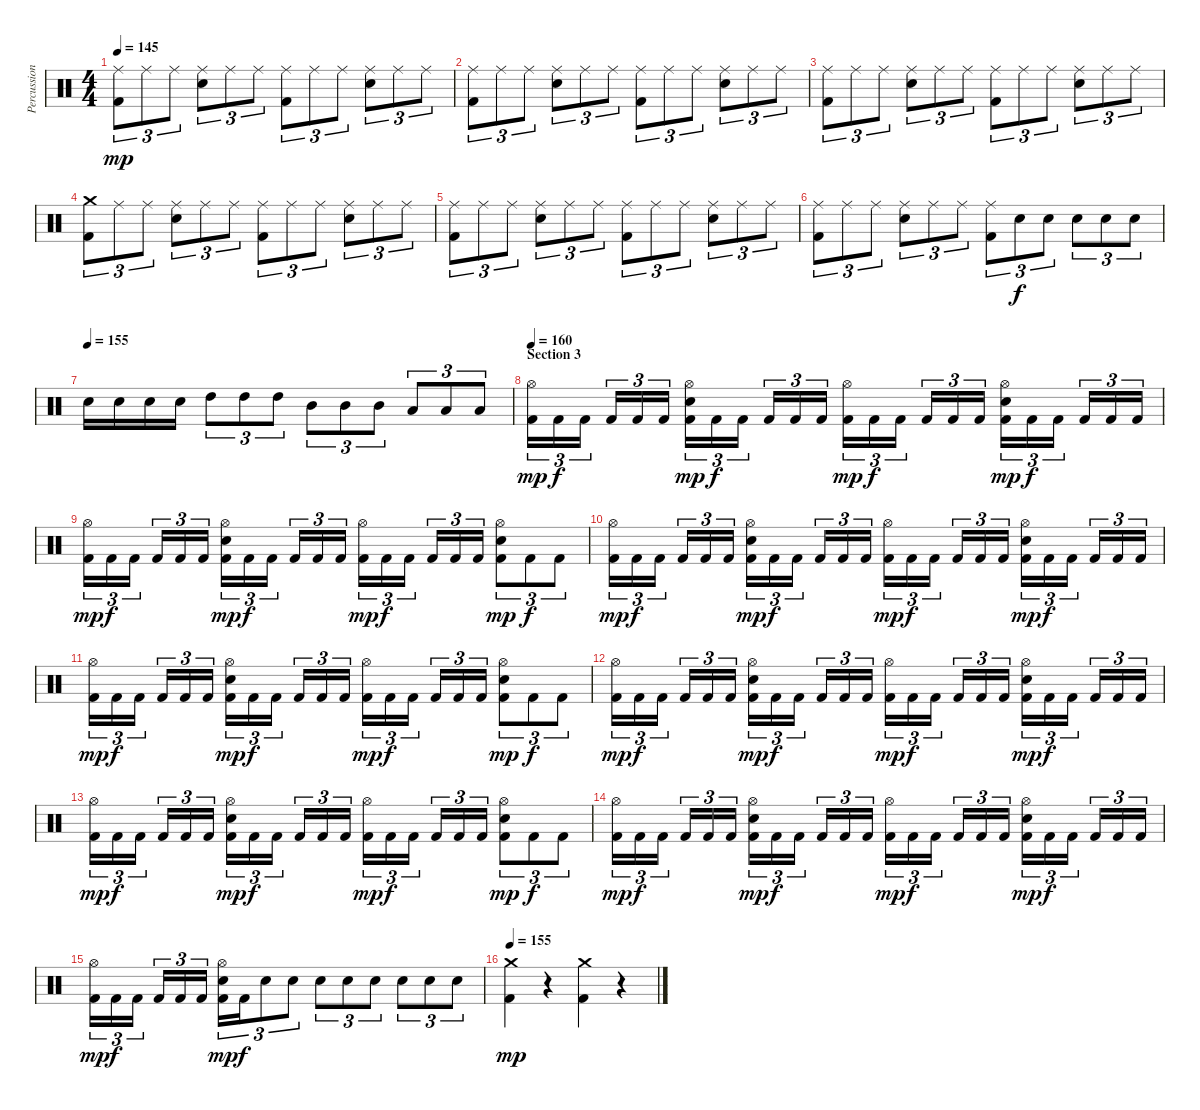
\track ("Percussion" "Percussion") {instrument percussion}
\staff {score}
\articulation defaults
\ts (4 4)
\tempo 145
\clef neutral
\ks c
("Ride (middle)" "Kick (hit) 2").8{tu (3 2) dy mp} "Ride (middle)".8{tu (3 2)} "Ride (middle)".8{tu (3 2)} ("Ride (middle)" "Electric Snare (hit)").8{tu (3 2)} "Ride (middle)".8{tu (3 2)} "Ride (middle)".8{tu (3 2)} ("Ride (middle)" "Kick (hit) 2").8{tu (3 2)} "Ride (middle)".8{tu (3 2)} "Ride (middle)".8{tu (3 2)} ("Ride (middle)" "Electric Snare (hit)").8{tu (3 2)} "Ride (middle)".8{tu (3 2)} "Ride (middle)".8{tu (3 2)} |
("Ride (middle)" "Kick (hit) 2").8{tu (3 2)} "Ride (middle)".8{tu (3 2)} "Ride (middle)".8{tu (3 2)} ("Ride (middle)" "Electric Snare (hit)").8{tu (3 2)} "Ride (middle)".8{tu (3 2)} "Ride (middle)".8{tu (3 2)} ("Ride (middle)" "Kick (hit) 2").8{tu (3 2)} "Ride (middle)".8{tu (3 2)} "Ride (middle)".8{tu (3 2)} ("Ride (middle)" "Electric Snare (hit)").8{tu (3 2)} "Ride (middle)".8{tu (3 2)} "Ride (middle)".8{tu (3 2)} |
("Ride (middle)" "Kick (hit) 2").8{tu (3 2)} "Ride (middle)".8{tu (3 2)} "Ride (middle)".8{tu (3 2)} ("Ride (middle)" "Electric Snare (hit)").8{tu (3 2)} "Ride (middle)".8{tu (3 2)} "Ride (middle)".8{tu (3 2)} ("Ride (middle)" "Kick (hit) 2").8{tu (3 2)} "Ride (middle)".8{tu (3 2)} "Ride (middle)".8{tu (3 2)} ("Ride (middle)" "Electric Snare (hit)").8{tu (3 2)} "Ride (middle)".8{tu (3 2)} "Ride (middle)".8{tu (3 2)} |
("Crash medium (hit)" "Kick (hit) 2").8{tu (3 2)} "Ride (middle)".8{tu (3 2)} "Ride (middle)".8{tu (3 2)} ("Ride (middle)" "Electric Snare (hit)").8{tu (3 2)} "Ride (middle)".8{tu (3 2)} "Ride (middle)".8{tu (3 2)} ("Ride (middle)" "Kick (hit) 2").8{tu (3 2)} "Ride (middle)".8{tu (3 2)} "Ride (middle)".8{tu (3 2)} ("Ride (middle)" "Electric Snare (hit)").8{tu (3 2)} "Ride (middle)".8{tu (3 2)} "Ride (middle)".8{tu (3 2)} |
("Ride (middle)" "Kick (hit) 2").8{tu (3 2)} "Ride (middle)".8{tu (3 2)} "Ride (middle)".8{tu (3 2)} ("Ride (middle)" "Electric Snare (hit)").8{tu (3 2)} "Ride (middle)".8{tu (3 2)} "Ride (middle)".8{tu (3 2)} ("Ride (middle)" "Kick (hit) 2").8{tu (3 2)} "Ride (middle)".8{tu (3 2)} "Ride (middle)".8{tu (3 2)} ("Ride (middle)" "Electric Snare (hit)").8{tu (3 2)} "Ride (middle)".8{tu (3 2)} "Ride (middle)".8{tu (3 2)} |
("Ride (middle)" "Kick (hit) 2").8{tu (3 2)} "Ride (middle)".8{tu (3 2)} "Ride (middle)".8{tu (3 2)} ("Ride (middle)" "Electric Snare (hit)").8{tu (3 2)} "Ride (middle)".8{tu (3 2)} "Ride (middle)".8{tu (3 2)} ("Ride (middle)" "Kick (hit) 2").8{tu (3 2)} "Electric Snare (hit)".8{tu (3 2) dy f} "Electric Snare (hit)".8{tu (3 2)} "Electric Snare (hit)".8{tu (3 2)} "Electric Snare (hit)".8{tu (3 2)} "Electric Snare (hit)".8{tu (3 2)} |
\tempo (155)
"Electric Snare (hit)".16 "Electric Snare (hit)".16 "Electric Snare (hit)".16 "Electric Snare (hit)".16 "High Tom (hit)".8{tu (3 2)} "High Tom (hit)".8{tu (3 2)} "High Tom (hit)".8{tu (3 2)} "Mid Tom (hit)".8{tu (3 2)} "Mid Tom (hit)".8{tu (3 2)} "Mid Tom (hit)".8{tu (3 2)} "Low Tom (hit)".8{tu (3 2)} "Low Tom (hit)".8{tu (3 2)} "Low Tom (hit)".8{tu (3 2)} |
\section ("" "Section 3")
\tempo 160
("Hi-Hat (open)" "Kick (hit) 2").16{tu (3 2) dy mp} "Kick (hit) 2".16{tu (3 2) dy f} "Kick (hit) 2".16{tu (3 2)} "Kick (hit) 2".16{tu (3 2)} "Kick (hit) 2".16{tu (3 2)} "Kick (hit) 2".16{tu (3 2)} ("Hi-Hat (open)" "Electric Snare (hit)" "Kick (hit) 2").16{tu (3 2) dy mp} "Kick (hit) 2".16{tu (3 2) dy f} "Kick (hit) 2".16{tu (3 2)} "Kick (hit) 2".16{tu (3 2)} "Kick (hit) 2".16{tu (3 2)} "Kick (hit) 2".16{tu (3 2)} ("Hi-Hat (open)" "Kick (hit) 2").16{tu (3 2) dy mp} "Kick (hit) 2".16{tu (3 2) dy f} "Kick (hit) 2".16{tu (3 2)} "Kick (hit) 2".16{tu (3 2)} "Kick (hit) 2".16{tu (3 2)} "Kick (hit) 2".16{tu (3 2)} ("Hi-Hat (open)" "Electric Snare (hit)" "Kick (hit) 2").16{tu (3 2) dy mp} "Kick (hit) 2".16{tu (3 2) dy f} "Kick (hit) 2".16{tu (3 2)} "Kick (hit) 2".16{tu (3 2)} "Kick (hit) 2".16{tu (3 2)} "Kick (hit) 2".16{tu (3 2)} |
("Hi-Hat (open)" "Kick (hit) 2").16{tu (3 2) dy mp} "Kick (hit) 2".16{tu (3 2) dy f} "Kick (hit) 2".16{tu (3 2)} "Kick (hit) 2".16{tu (3 2)} "Kick (hit) 2".16{tu (3 2)} "Kick (hit) 2".16{tu (3 2)} ("Hi-Hat (open)" "Electric Snare (hit)" "Kick (hit) 2").16{tu (3 2) dy mp} "Kick (hit) 2".16{tu (3 2) dy f} "Kick (hit) 2".16{tu (3 2)} "Kick (hit) 2".16{tu (3 2)} "Kick (hit) 2".16{tu (3 2)} "Kick (hit) 2".16{tu (3 2)} ("Hi-Hat (open)" "Kick (hit) 2").16{tu (3 2) dy mp} "Kick (hit) 2".16{tu (3 2) dy f} "Kick (hit) 2".16{tu (3 2)} "Kick (hit) 2".16{tu (3 2)} "Kick (hit) 2".16{tu (3 2)} "Kick (hit) 2".16{tu (3 2)} ("Hi-Hat (open)" "Electric Snare (hit)" "Kick (hit) 2").8{tu (3 2) dy mp} "Kick (hit) 2".8{tu (3 2) dy f} "Kick (hit) 2".8{tu (3 2)} |
("Hi-Hat (open)" "Kick (hit) 2").16{tu (3 2) dy mp} "Kick (hit) 2".16{tu (3 2) dy f} "Kick (hit) 2".16{tu (3 2)} "Kick (hit) 2".16{tu (3 2)} "Kick (hit) 2".16{tu (3 2)} "Kick (hit) 2".16{tu (3 2)} ("Hi-Hat (open)" "Electric Snare (hit)" "Kick (hit) 2").16{tu (3 2) dy mp} "Kick (hit) 2".16{tu (3 2) dy f} "Kick (hit) 2".16{tu (3 2)} "Kick (hit) 2".16{tu (3 2)} "Kick (hit) 2".16{tu (3 2)} "Kick (hit) 2".16{tu (3 2)} ("Hi-Hat (open)" "Kick (hit) 2").16{tu (3 2) dy mp} "Kick (hit) 2".16{tu (3 2) dy f} "Kick (hit) 2".16{tu (3 2)} "Kick (hit) 2".16{tu (3 2)} "Kick (hit) 2".16{tu (3 2)} "Kick (hit) 2".16{tu (3 2)} ("Hi-Hat (open)" "Electric Snare (hit)" "Kick (hit) 2").16{tu (3 2) dy mp} "Kick (hit) 2".16{tu (3 2) dy f} "Kick (hit) 2".16{tu (3 2)} "Kick (hit) 2".16{tu (3 2)} "Kick (hit) 2".16{tu (3 2)} "Kick (hit) 2".16{tu (3 2)} |
("Hi-Hat (open)" "Kick (hit) 2").16{tu (3 2) dy mp} "Kick (hit) 2".16{tu (3 2) dy f} "Kick (hit) 2".16{tu (3 2)} "Kick (hit) 2".16{tu (3 2)} "Kick (hit) 2".16{tu (3 2)} "Kick (hit) 2".16{tu (3 2)} ("Hi-Hat (open)" "Electric Snare (hit)" "Kick (hit) 2").16{tu (3 2) dy mp} "Kick (hit) 2".16{tu (3 2) dy f} "Kick (hit) 2".16{tu (3 2)} "Kick (hit) 2".16{tu (3 2)} "Kick (hit) 2".16{tu (3 2)} "Kick (hit) 2".16{tu (3 2)} ("Hi-Hat (open)" "Kick (hit) 2").16{tu (3 2) dy mp} "Kick (hit) 2".16{tu (3 2) dy f} "Kick (hit) 2".16{tu (3 2)} "Kick (hit) 2".16{tu (3 2)} "Kick (hit) 2".16{tu (3 2)} "Kick (hit) 2".16{tu (3 2)} ("Hi-Hat (open)" "Electric Snare (hit)" "Kick (hit) 2").8{tu (3 2) dy mp} "Kick (hit) 2".8{tu (3 2) dy f} "Kick (hit) 2".8{tu (3 2)} |
("Hi-Hat (open)" "Kick (hit) 2").16{tu (3 2) dy mp} "Kick (hit) 2".16{tu (3 2) dy f} "Kick (hit) 2".16{tu (3 2)} "Kick (hit) 2".16{tu (3 2)} "Kick (hit) 2".16{tu (3 2)} "Kick (hit) 2".16{tu (3 2)} ("Hi-Hat (open)" "Electric Snare (hit)" "Kick (hit) 2").16{tu (3 2) dy mp} "Kick (hit) 2".16{tu (3 2) dy f} "Kick (hit) 2".16{tu (3 2)} "Kick (hit) 2".16{tu (3 2)} "Kick (hit) 2".16{tu (3 2)} "Kick (hit) 2".16{tu (3 2)} ("Hi-Hat (open)" "Kick (hit) 2").16{tu (3 2) dy mp} "Kick (hit) 2".16{tu (3 2) dy f} "Kick (hit) 2".16{tu (3 2)} "Kick (hit) 2".16{tu (3 2)} "Kick (hit) 2".16{tu (3 2)} "Kick (hit) 2".16{tu (3 2)} ("Hi-Hat (open)" "Electric Snare (hit)" "Kick (hit) 2").16{tu (3 2) dy mp} "Kick (hit) 2".16{tu (3 2) dy f} "Kick (hit) 2".16{tu (3 2)} "Kick (hit) 2".16{tu (3 2)} "Kick (hit) 2".16{tu (3 2)} "Kick (hit) 2".16{tu (3 2)} |
("Hi-Hat (open)" "Kick (hit) 2").16{tu (3 2) dy mp} "Kick (hit) 2".16{tu (3 2) dy f} "Kick (hit) 2".16{tu (3 2)} "Kick (hit) 2".16{tu (3 2)} "Kick (hit) 2".16{tu (3 2)} "Kick (hit) 2".16{tu (3 2)} ("Hi-Hat (open)" "Electric Snare (hit)" "Kick (hit) 2").16{tu (3 2) dy mp} "Kick (hit) 2".16{tu (3 2) dy f} "Kick (hit) 2".16{tu (3 2)} "Kick (hit) 2".16{tu (3 2)} "Kick (hit) 2".16{tu (3 2)} "Kick (hit) 2".16{tu (3 2)} ("Hi-Hat (open)" "Kick (hit) 2").16{tu (3 2) dy mp} "Kick (hit) 2".16{tu (3 2) dy f} "Kick (hit) 2".16{tu (3 2)} "Kick (hit) 2".16{tu (3 2)} "Kick (hit) 2".16{tu (3 2)} "Kick (hit) 2".16{tu (3 2)} ("Hi-Hat (open)" "Electric Snare (hit)" "Kick (hit) 2").8{tu (3 2) dy mp} "Kick (hit) 2".8{tu (3 2) dy f} "Kick (hit) 2".8{tu (3 2)} |
("Hi-Hat (open)" "Kick (hit) 2").16{tu (3 2) dy mp} "Kick (hit) 2".16{tu (3 2) dy f} "Kick (hit) 2".16{tu (3 2)} "Kick (hit) 2".16{tu (3 2)} "Kick (hit) 2".16{tu (3 2)} "Kick (hit) 2".16{tu (3 2)} ("Hi-Hat (open)" "Electric Snare (hit)" "Kick (hit) 2").16{tu (3 2) dy mp} "Kick (hit) 2".16{tu (3 2) dy f} "Kick (hit) 2".16{tu (3 2)} "Kick (hit) 2".16{tu (3 2)} "Kick (hit) 2".16{tu (3 2)} "Kick (hit) 2".16{tu (3 2)} ("Hi-Hat (open)" "Kick (hit) 2").16{tu (3 2) dy mp} "Kick (hit) 2".16{tu (3 2) dy f} "Kick (hit) 2".16{tu (3 2)} "Kick (hit) 2".16{tu (3 2)} "Kick (hit) 2".16{tu (3 2)} "Kick (hit) 2".16{tu (3 2)} ("Hi-Hat (open)" "Electric Snare (hit)" "Kick (hit) 2").16{tu (3 2) dy mp} "Kick (hit) 2".16{tu (3 2) dy f} "Kick (hit) 2".16{tu (3 2)} "Kick (hit) 2".16{tu (3 2)} "Kick (hit) 2".16{tu (3 2)} "Kick (hit) 2".16{tu (3 2)} |
("Hi-Hat (open)" "Kick (hit) 2").16{tu (3 2) dy mp} "Kick (hit) 2".16{tu (3 2) dy f} "Kick (hit) 2".16{tu (3 2)} "Kick (hit) 2".16{tu (3 2)} "Kick (hit) 2".16{tu (3 2)} "Kick (hit) 2".16{tu (3 2)} ("Hi-Hat (open)" "Electric Snare (hit)" "Kick (hit) 2").16{tu (3 2) dy mp} "Kick (hit) 2".16{tu (3 2) dy f} "Electric Snare (hit)".8{tu (3 2)} "Electric Snare (hit)".8{tu (3 2)} "Electric Snare (hit)".8{tu (3 2)} "Electric Snare (hit)".8{tu (3 2)} "Electric Snare (hit)".8{tu (3 2)} "Electric Snare (hit)".8{tu (3 2)} "Electric Snare (hit)".8{tu (3 2)} "Electric Snare (hit)".8{tu (3 2)} |
\tempo 155
("Crash medium (hit)" "Kick (hit) 2").4{dy mp} r.4 ("Crash medium (hit)" "Kick (hit) 2").4 r.4
